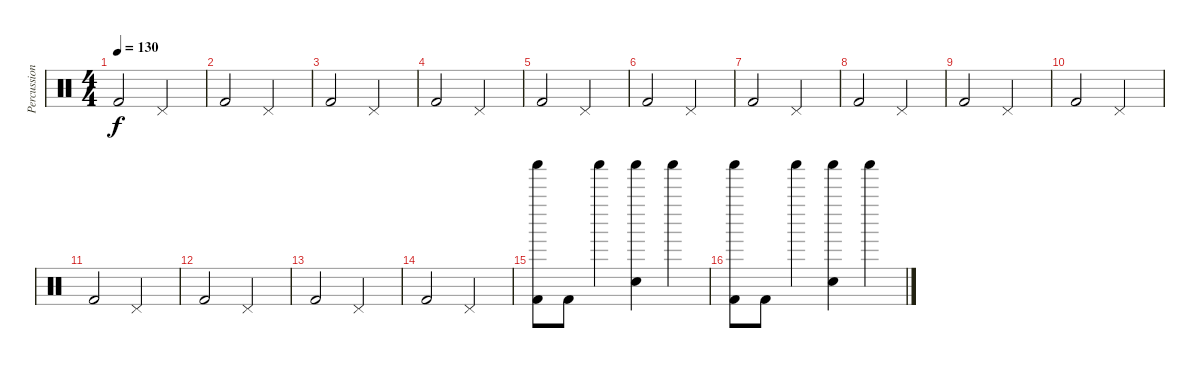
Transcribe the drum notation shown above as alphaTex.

\track ("Percussion" "Percussion") {instrument percussion}
\staff {score}
\articulation defaults
\ts (4 4)
\tempo 130
\clef neutral
\ks c "Kick (hit) 2".2{dy f} "Pedal Hi-Hat (hit)".2
|
"Kick (hit) 2".2 "Pedal Hi-Hat (hit)".2 |
"Kick (hit) 2".2 "Pedal Hi-Hat (hit)".2 |
"Kick (hit) 2".2 "Pedal Hi-Hat (hit)".2 |
"Kick (hit) 2".2 "Pedal Hi-Hat (hit)".2 |
"Kick (hit) 2".2 "Pedal Hi-Hat (hit)".2 |
"Kick (hit) 2".2 "Pedal Hi-Hat (hit)".2 |
"Kick (hit) 2".2 "Pedal Hi-Hat (hit)".2 |
"Kick (hit) 2".2 "Pedal Hi-Hat (hit)".2 |
"Kick (hit) 2".2 "Pedal Hi-Hat (hit)".2 |
"Kick (hit) 2".2 "Pedal Hi-Hat (hit)".2 |
"Kick (hit) 2".2 "Pedal Hi-Hat (hit)".2 |
"Kick (hit) 2".2 "Pedal Hi-Hat (hit)".2 |
"Kick (hit) 2".2 "Pedal Hi-Hat (hit)".2 |
("Shaker (hit)" "Kick (hit) 2").8 "Kick (hit) 2".8 "Shaker (hit)".4 ("Shaker (hit)" "Snare (hit) 2").4 "Shaker (hit)".4 |
("Shaker (hit)" "Kick (hit) 2").8 "Kick (hit) 2".8 "Shaker (hit)".4 ("Shaker (hit)" "Snare (hit) 2").4 "Shaker (hit)".4
